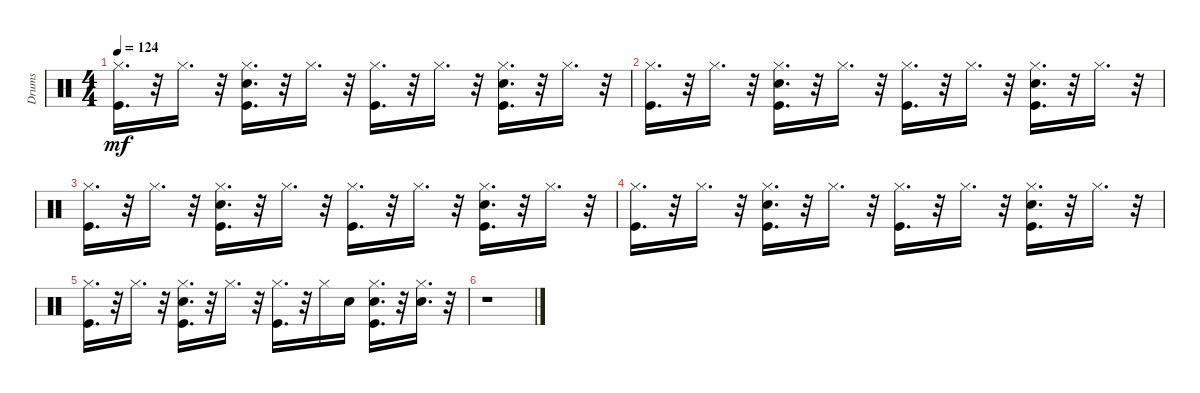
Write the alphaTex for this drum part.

\track ("Drums" "Drums") {instrument percussion}
\staff {score}
\articulation defaults
\ts (4 4)
\tempo 124
\clef neutral
\ks c
("Kick (hit)" "Hi-Hat (closed)").16{d dy mf} r.32 "Hi-Hat (closed)".16{d} r.32 ("Kick (hit)" "Snare (hit) 2" "Hi-Hat (closed)").16{d} r.32 "Hi-Hat (closed)".16{d} r.32 ("Kick (hit)" "Hi-Hat (closed)").16{d} r.32 "Hi-Hat (closed)".16{d} r.32 ("Kick (hit)" "Snare (hit) 2" "Hi-Hat (closed)").16{d} r.32 "Hi-Hat (closed)".16{d} r.32 |
("Kick (hit)" "Hi-Hat (closed)").16{d} r.32 "Hi-Hat (closed)".16{d} r.32 ("Kick (hit)" "Snare (hit) 2" "Hi-Hat (closed)").16{d} r.32 "Hi-Hat (closed)".16{d} r.32 ("Kick (hit)" "Hi-Hat (closed)").16{d} r.32 "Hi-Hat (closed)".16{d} r.32 ("Kick (hit)" "Snare (hit) 2" "Hi-Hat (closed)").16{d} r.32 "Hi-Hat (closed)".16{d} r.32 |
("Kick (hit)" "Hi-Hat (closed)").16{d} r.32 "Hi-Hat (closed)".16{d} r.32 ("Kick (hit)" "Snare (hit) 2" "Hi-Hat (closed)").16{d} r.32 "Hi-Hat (closed)".16{d} r.32 ("Kick (hit)" "Hi-Hat (closed)").16{d} r.32 "Hi-Hat (closed)".16{d} r.32 ("Kick (hit)" "Snare (hit) 2" "Hi-Hat (closed)").16{d} r.32 "Hi-Hat (closed)".16{d} r.32 |
("Kick (hit)" "Hi-Hat (closed)").16{d} r.32 "Hi-Hat (closed)".16{d} r.32 ("Kick (hit)" "Snare (hit) 2" "Hi-Hat (closed)").16{d} r.32 "Hi-Hat (closed)".16{d} r.32 ("Kick (hit)" "Hi-Hat (closed)").16{d} r.32 "Hi-Hat (closed)".16{d} r.32 ("Kick (hit)" "Snare (hit) 2" "Hi-Hat (closed)").16{d} r.32 "Hi-Hat (closed)".16{d} r.32 |
("Kick (hit)" "Hi-Hat (closed)").16{d} r.32 "Hi-Hat (closed)".16{d} r.32 ("Kick (hit)" "Snare (hit) 2" "Hi-Hat (closed)").16{d} r.32 "Hi-Hat (closed)".16{d} r.32 ("Kick (hit)" "Hi-Hat (closed)").16{d} r.32 "Hi-Hat (closed)".16 "Snare (hit) 2".16 ("Kick (hit)" "Snare (hit) 2" "Hi-Hat (closed)").16{d} r.32 ("Snare (hit) 2" "Hi-Hat (closed)").16{d} r.32 |
r.1
